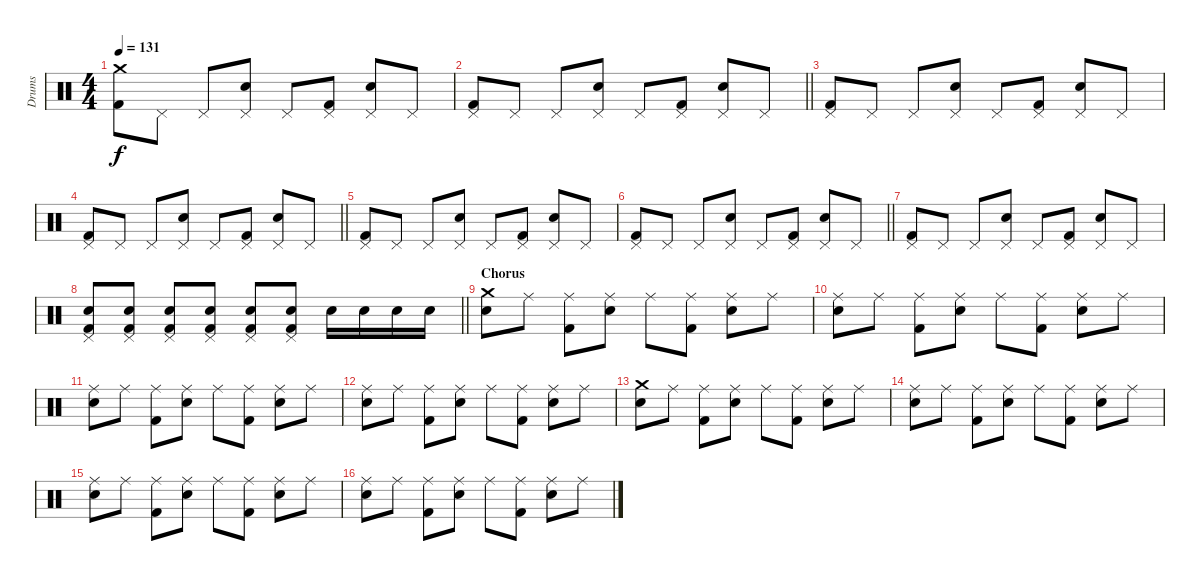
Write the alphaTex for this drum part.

\track ("Drums" "Drums") {instrument percussion}
\staff {score}
\articulation defaults
\ts (4 4)
\tempo 131
\clef neutral
\ks c
("Crash medium (hit)" "Kick (hit) 2").8{dy f} "Pedal Hi-Hat (hit)".8 "Pedal Hi-Hat (hit)".8 ("Pedal Hi-Hat (hit)" "Electric Snare (hit)").8 "Pedal Hi-Hat (hit)".8 ("Pedal Hi-Hat (hit)" "Kick (hit) 2").8 ("Pedal Hi-Hat (hit)" "Electric Snare (hit)").8 "Pedal Hi-Hat (hit)".8 |
\barLineRight lightlight
("Pedal Hi-Hat (hit)" "Kick (hit) 2").8 "Pedal Hi-Hat (hit)".8 "Pedal Hi-Hat (hit)".8 ("Pedal Hi-Hat (hit)" "Electric Snare (hit)").8 "Pedal Hi-Hat (hit)".8 ("Pedal Hi-Hat (hit)" "Kick (hit) 2").8 ("Pedal Hi-Hat (hit)" "Electric Snare (hit)").8 "Pedal Hi-Hat (hit)".8 |
("Pedal Hi-Hat (hit)" "Kick (hit) 2").8 "Pedal Hi-Hat (hit)".8 "Pedal Hi-Hat (hit)".8 ("Pedal Hi-Hat (hit)" "Electric Snare (hit)").8 "Pedal Hi-Hat (hit)".8 ("Pedal Hi-Hat (hit)" "Kick (hit) 2").8 ("Pedal Hi-Hat (hit)" "Electric Snare (hit)").8 "Pedal Hi-Hat (hit)".8 |
\barLineRight lightlight
("Pedal Hi-Hat (hit)" "Kick (hit) 2").8 "Pedal Hi-Hat (hit)".8 "Pedal Hi-Hat (hit)".8 ("Pedal Hi-Hat (hit)" "Electric Snare (hit)").8 "Pedal Hi-Hat (hit)".8 ("Pedal Hi-Hat (hit)" "Kick (hit) 2").8 ("Pedal Hi-Hat (hit)" "Electric Snare (hit)").8 "Pedal Hi-Hat (hit)".8 |
("Pedal Hi-Hat (hit)" "Kick (hit) 2").8 "Pedal Hi-Hat (hit)".8 "Pedal Hi-Hat (hit)".8 ("Pedal Hi-Hat (hit)" "Electric Snare (hit)").8 "Pedal Hi-Hat (hit)".8 ("Pedal Hi-Hat (hit)" "Kick (hit) 2").8 ("Pedal Hi-Hat (hit)" "Electric Snare (hit)").8 "Pedal Hi-Hat (hit)".8 |
\barLineRight lightlight
("Pedal Hi-Hat (hit)" "Kick (hit) 2").8 "Pedal Hi-Hat (hit)".8 "Pedal Hi-Hat (hit)".8 ("Pedal Hi-Hat (hit)" "Electric Snare (hit)").8 "Pedal Hi-Hat (hit)".8 ("Pedal Hi-Hat (hit)" "Kick (hit) 2").8 ("Pedal Hi-Hat (hit)" "Electric Snare (hit)").8 "Pedal Hi-Hat (hit)".8 |
("Pedal Hi-Hat (hit)" "Kick (hit) 2").8 "Pedal Hi-Hat (hit)".8 "Pedal Hi-Hat (hit)".8 ("Pedal Hi-Hat (hit)" "Electric Snare (hit)").8 "Pedal Hi-Hat (hit)".8 ("Pedal Hi-Hat (hit)" "Kick (hit) 2").8 ("Pedal Hi-Hat (hit)" "Electric Snare (hit)").8 "Pedal Hi-Hat (hit)".8 |
\barLineRight lightlight
("Pedal Hi-Hat (hit)" "Electric Snare (hit)" "Kick (hit) 2").8 ("Pedal Hi-Hat (hit)" "Electric Snare (hit)" "Kick (hit) 2").8 ("Pedal Hi-Hat (hit)" "Electric Snare (hit)" "Kick (hit) 2").8 ("Pedal Hi-Hat (hit)" "Electric Snare (hit)" "Kick (hit) 2").8 ("Pedal Hi-Hat (hit)" "Electric Snare (hit)" "Kick (hit) 2").8 ("Pedal Hi-Hat (hit)" "Electric Snare (hit)" "Kick (hit) 2").8 "Electric Snare (hit)".16 "Electric Snare (hit)".16 "Electric Snare (hit)".16 "Electric Snare (hit)".16 |
\section ("" "Chorus")
("Crash medium (hit)" "Electric Snare (hit)").8 "Ride (middle)".8 ("Ride (middle)" "Kick (hit) 2").8 ("Ride (middle)" "Electric Snare (hit)").8 "Ride (middle)".8 ("Ride (middle)" "Kick (hit) 2").8 ("Ride (middle)" "Electric Snare (hit)").8 "Ride (middle)".8 |
("Ride (middle)" "Electric Snare (hit)").8 "Ride (middle)".8 ("Ride (middle)" "Kick (hit) 2").8 ("Ride (middle)" "Electric Snare (hit)").8 "Ride (middle)".8 ("Ride (middle)" "Kick (hit) 2").8 ("Ride (middle)" "Electric Snare (hit)").8 "Ride (middle)".8 |
("Ride (middle)" "Electric Snare (hit)").8 "Ride (middle)".8 ("Ride (middle)" "Kick (hit) 2").8 ("Ride (middle)" "Electric Snare (hit)").8 "Ride (middle)".8 ("Ride (middle)" "Kick (hit) 2").8 ("Ride (middle)" "Electric Snare (hit)").8 "Ride (middle)".8 |
("Ride (middle)" "Electric Snare (hit)").8 "Ride (middle)".8 ("Ride (middle)" "Kick (hit) 2").8 ("Ride (middle)" "Electric Snare (hit)").8 "Ride (middle)".8 ("Ride (middle)" "Kick (hit) 2").8 ("Ride (middle)" "Electric Snare (hit)").8 "Ride (middle)".8 |
("Crash medium (hit)" "Electric Snare (hit)").8 "Ride (middle)".8 ("Ride (middle)" "Kick (hit) 2").8 ("Ride (middle)" "Electric Snare (hit)").8 "Ride (middle)".8 ("Ride (middle)" "Kick (hit) 2").8 ("Ride (middle)" "Electric Snare (hit)").8 "Ride (middle)".8 |
("Ride (middle)" "Electric Snare (hit)").8 "Ride (middle)".8 ("Ride (middle)" "Kick (hit) 2").8 ("Ride (middle)" "Electric Snare (hit)").8 "Ride (middle)".8 ("Ride (middle)" "Kick (hit) 2").8 ("Ride (middle)" "Electric Snare (hit)").8 "Ride (middle)".8 |
("Ride (middle)" "Electric Snare (hit)").8 "Ride (middle)".8 ("Ride (middle)" "Kick (hit) 2").8 ("Ride (middle)" "Electric Snare (hit)").8 "Ride (middle)".8 ("Ride (middle)" "Kick (hit) 2").8 ("Ride (middle)" "Electric Snare (hit)").8 "Ride (middle)".8 |
("Ride (middle)" "Electric Snare (hit)").8 "Ride (middle)".8 ("Ride (middle)" "Kick (hit) 2").8 ("Ride (middle)" "Electric Snare (hit)").8 "Ride (middle)".8 ("Ride (middle)" "Kick (hit) 2").8 ("Ride (middle)" "Electric Snare (hit)").8 "Ride (middle)".8
